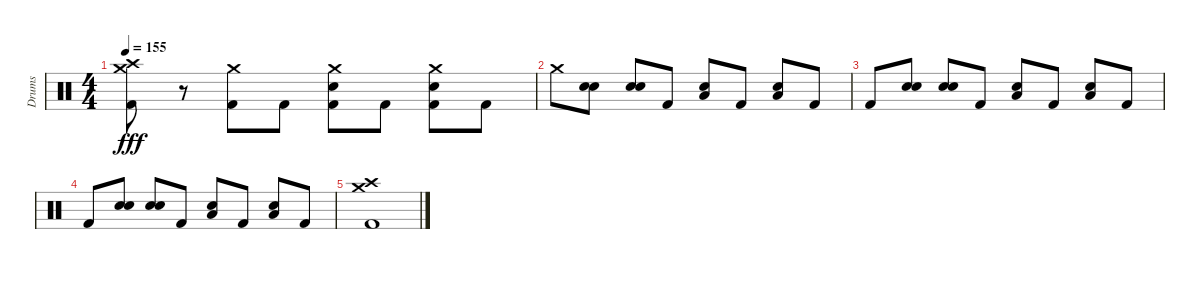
\track ("Drums" "Drums") {instrument percussion}
\staff {score}
\articulation defaults
\ts (4 4)
\tempo 155
\clef neutral
\ks c
("Crash high (hit)" "Crash medium (hit)" "Kick (hit) 2").8{dy fff} r.8 ("Crash medium (hit)" "Kick (hit) 2").8 "Kick (hit) 2".8 ("Crash medium (hit)" "Electric Snare (hit)" "Kick (hit) 2").8 "Kick (hit) 2".8 ("Crash medium (hit)" "Electric Snare (hit)" "Kick (hit) 2").8 "Kick (hit) 2".8 |
"Crash medium (hit)".8 ("Electric Snare (hit)" "Electric Snare (hit)").8 ("Electric Snare (hit)" "Electric Snare (hit)").8 "Kick (hit) 2".8 ("Low Floor Tom (hit)" "Electric Snare (hit)").8 "Kick (hit) 2".8 ("Low Floor Tom (hit)" "Electric Snare (hit)").8 "Kick (hit) 2".8 |
"Kick (hit) 2".8 ("Electric Snare (hit)" "Electric Snare (hit)").8 ("Electric Snare (hit)" "Electric Snare (hit)").8 "Kick (hit) 2".8 ("Low Floor Tom (hit)" "Electric Snare (hit)").8 "Kick (hit) 2".8 ("Low Floor Tom (hit)" "Electric Snare (hit)").8 "Kick (hit) 2".8 |
"Kick (hit) 2".8 ("Electric Snare (hit)" "Electric Snare (hit)").8 ("Electric Snare (hit)" "Electric Snare (hit)").8 "Kick (hit) 2".8 ("Low Floor Tom (hit)" "Electric Snare (hit)").8 "Kick (hit) 2".8 ("Low Floor Tom (hit)" "Electric Snare (hit)").8 "Kick (hit) 2".8 |
("Crash high (hit)" "Crash medium (hit)" "Kick (hit) 2").1
